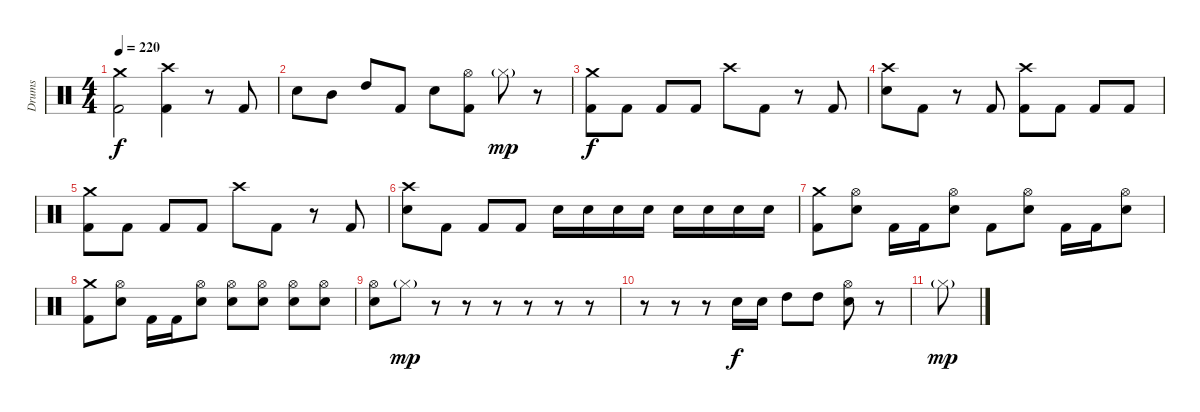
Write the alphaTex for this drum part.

\track ("Drums" "Drums") {instrument percussion}
\staff {score}
\articulation defaults
\ts (4 4)
\tempo 220
\clef neutral
\ks c
("Crash medium (hit)" "Kick (hit) 2").2{dy f} ("Crash high (hit)" "Kick (hit) 2").4 r.8 "Kick (hit) 2".8 |
"Electric Snare (hit)".8 "Mid Tom (hit)".8 "High Tom (hit)".8 "Kick (hit) 2".8 "Electric Snare (hit)".8 ("Hi-Hat (open)" "Kick (hit) 2").8 "Hi-Hat (closed)"{g}.8{dy mp} r.8 |
("Crash medium (hit)" "Kick (hit) 2").8{dy f} "Kick (hit) 2".8 "Kick (hit) 2".8 "Kick (hit) 2".8 "Crash high (hit)".8 "Kick (hit) 2".8 r.8 "Kick (hit) 2".8 |
("Crash high (hit)" "Electric Snare (hit)").8 "Kick (hit) 2".8 r.8 "Kick (hit) 2".8 ("Crash high (hit)" "Kick (hit) 2").8 "Kick (hit) 2".8 "Kick (hit) 2".8 "Kick (hit) 2".8 |
("Crash medium (hit)" "Kick (hit) 2").8 "Kick (hit) 2".8 "Kick (hit) 2".8 "Kick (hit) 2".8 "Crash high (hit)".8 "Kick (hit) 2".8 r.8 "Kick (hit) 2".8 |
("Crash high (hit)" "Electric Snare (hit)").8 "Kick (hit) 2".8 "Kick (hit) 2".8 "Kick (hit) 2".8 "Electric Snare (hit)".16 "Electric Snare (hit)".16 "Electric Snare (hit)".16 "Electric Snare (hit)".16 "Electric Snare (hit)".16 "Electric Snare (hit)".16 "Electric Snare (hit)".16 "Electric Snare (hit)".16 |
("Crash medium (hit)" "Kick (hit) 2").8 ("Hi-Hat (open)" "Electric Snare (hit)").8 "Kick (hit) 2".16 "Kick (hit) 2".16 ("Hi-Hat (open)" "Electric Snare (hit)").8 "Kick (hit) 2".8 ("Hi-Hat (open)" "Electric Snare (hit)").8 "Kick (hit) 2".16 "Kick (hit) 2".16 ("Hi-Hat (open)" "Electric Snare (hit)").8 |
("Crash medium (hit)" "Kick (hit) 2").8 ("Hi-Hat (open)" "Electric Snare (hit)").8 "Kick (hit) 2".16 "Kick (hit) 2".16 ("Hi-Hat (open)" "Electric Snare (hit)").8 ("Hi-Hat (open)" "Electric Snare (hit)").8 ("Hi-Hat (open)" "Electric Snare (hit)").8 ("Hi-Hat (open)" "Electric Snare (hit)").8 ("Hi-Hat (open)" "Electric Snare (hit)").8 |
("Hi-Hat (open)" "Electric Snare (hit)").8 "Hi-Hat (closed)"{g}.8{dy mp} r.8 r.8 r.8 r.8 r.8 r.8 |
r.8 r.8 r.8 "Electric Snare (hit)".16{dy f} "Electric Snare (hit)".16 "High Tom (hit)".8 "High Tom (hit)".8 ("Hi-Hat (open)" "Electric Snare (hit)").8 r.8 |
"Hi-Hat (closed)"{g}.8{dy mp}
